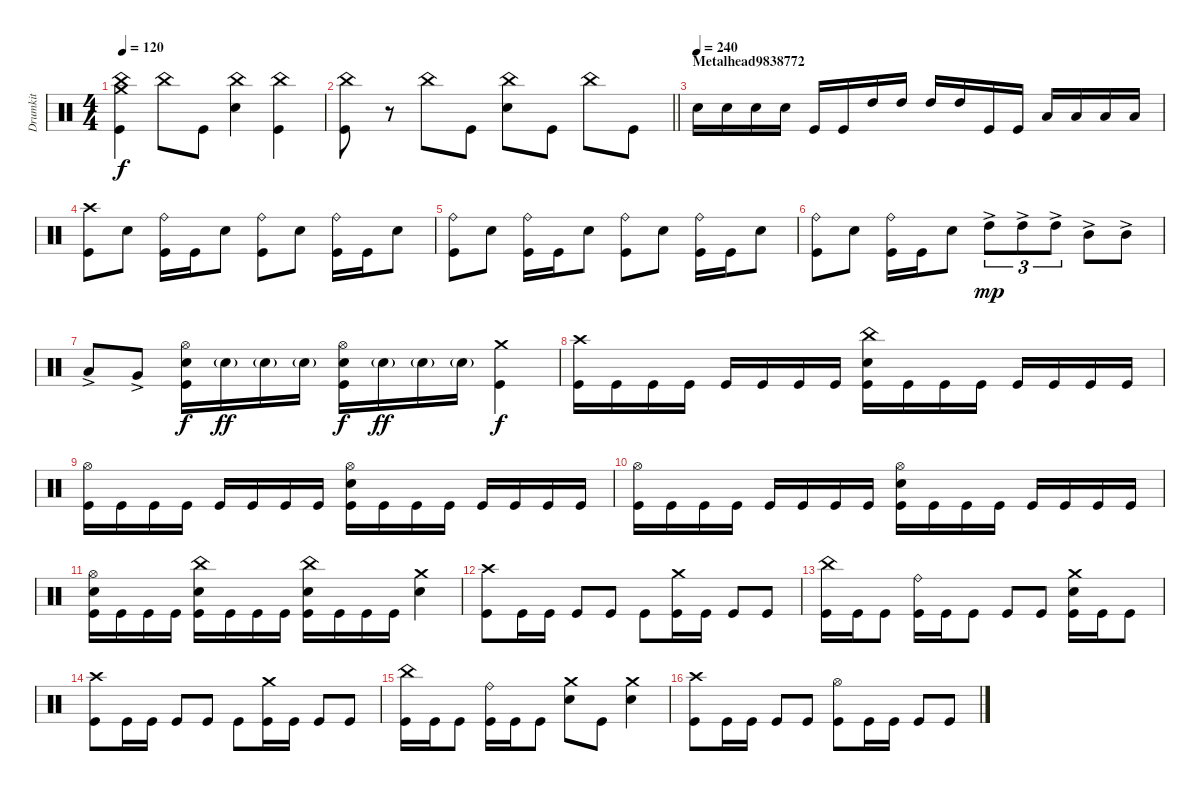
\track ("Drumkit" "Drumkit") {instrument percussion}
\staff {score}
\articulation defaults
\ts (4 4)
\tempo 120
\clef neutral
\ks c
("Crash medium (hit)" "China (hit)" "Kick (hit)").4{dy f} "China (hit)".8 "Kick (hit)".8 ("China (hit)" "Snare (hit) 2").4 ("China (hit)" "Kick (hit)").4 |
\barLineRight lightlight
("China (hit)" "Kick (hit)").8 r.8 "China (hit)".8 "Kick (hit)".8 ("China (hit)" "Snare (hit) 2").8 "Kick (hit)".8 "China (hit)".8 "Kick (hit)".8 |
\section ("" "Metalhead9838772")
\tempo (240)
"Snare (hit) 2".16 "Snare (hit) 2".16 "Snare (hit) 2".16 "Snare (hit) 2".16 "Kick (hit)".16 "Kick (hit)".16 "High Tom (hit)".16 "High Tom (hit)".16 "High Tom (hit)".16 "High Tom (hit)".16 "Kick (hit)".16 "Kick (hit)".16 "Low Tom (hit)".16 "Low Tom (hit)".16 "Low Tom (hit)".16 "Low Tom (hit)".16 |
("Crash high (hit)" "Kick (hit)").8 "Snare (hit) 2".8 ("Ride (bell)" "Kick (hit)").16 "Kick (hit)".16 "Snare (hit) 2".8 ("Ride (bell)" "Kick (hit)").8 "Snare (hit) 2".8 ("Ride (bell)" "Kick (hit)").16 "Kick (hit)".16 "Snare (hit) 2".8 |
("Ride (bell)" "Kick (hit)").8 "Snare (hit) 2".8 ("Ride (bell)" "Kick (hit)").16 "Kick (hit)".16 "Snare (hit) 2".8 ("Ride (bell)" "Kick (hit)").8 "Snare (hit) 2".8 ("Ride (bell)" "Kick (hit)").16 "Kick (hit)".16 "Snare (hit) 2".8 |
("Ride (bell)" "Kick (hit)").8 "Snare (hit) 2".8 ("Ride (bell)" "Kick (hit)").16 "Kick (hit)".16 "Snare (hit) 2".8 "High Tom (hit)"{ac}.8{tu (3 2) dy mp} "High Tom (hit)"{ac}.8{tu (3 2)} "High Tom (hit)"{ac}.8{tu (3 2)} "Mid Tom (hit)"{ac}.8 "Mid Tom (hit)"{ac}.8 |
"Low Tom (hit)"{ac}.8 "Very Low Tom (hit)"{ac}.8 ("Hi-Hat (open)" "Snare (hit) 2" "Kick (hit)").16{dy f} "Snare (hit) 2"{g}.16{dy ff} "Snare (hit) 2"{g}.16 "Snare (hit) 2"{g}.16 ("Hi-Hat (open)" "Snare (hit) 2" "Kick (hit)").16{dy f} "Snare (hit) 2"{g}.16{dy ff} "Snare (hit) 2"{g}.16 "Snare (hit) 2"{g}.16 ("Crash medium (hit)" "Kick (hit)").4{dy f} |
("Crash high (hit)" "Kick (hit)").16 "Kick (hit)".16 "Kick (hit)".16 "Kick (hit)".16 "Kick (hit)".16 "Kick (hit)".16 "Kick (hit)".16 "Kick (hit)".16 ("China (hit)" "Snare (hit) 2" "Kick (hit)").16 "Kick (hit)".16 "Kick (hit)".16 "Kick (hit)".16 "Kick (hit)".16 "Kick (hit)".16 "Kick (hit)".16 "Kick (hit)".16 |
("Hi-Hat (open)" "Kick (hit)").16 "Kick (hit)".16 "Kick (hit)".16 "Kick (hit)".16 "Kick (hit)".16 "Kick (hit)".16 "Kick (hit)".16 "Kick (hit)".16 ("Hi-Hat (open)" "Snare (hit) 2" "Kick (hit)").16 "Kick (hit)".16 "Kick (hit)".16 "Kick (hit)".16 "Kick (hit)".16 "Kick (hit)".16 "Kick (hit)".16 "Kick (hit)".16 |
("Hi-Hat (open)" "Kick (hit)").16 "Kick (hit)".16 "Kick (hit)".16 "Kick (hit)".16 "Kick (hit)".16 "Kick (hit)".16 "Kick (hit)".16 "Kick (hit)".16 ("Hi-Hat (open)" "Snare (hit) 2" "Kick (hit)").16 "Kick (hit)".16 "Kick (hit)".16 "Kick (hit)".16 "Kick (hit)".16 "Kick (hit)".16 "Kick (hit)".16 "Kick (hit)".16 |
("Hi-Hat (open)" "Snare (hit) 2" "Kick (hit)").16 "Kick (hit)".16 "Kick (hit)".16 "Kick (hit)".16 ("China (hit)" "Snare (hit) 2" "Kick (hit)").16 "Kick (hit)".16 "Kick (hit)".16 "Kick (hit)".16 ("China (hit)" "Snare (hit) 2" "Kick (hit)").16 "Kick (hit)".16 "Kick (hit)".16 "Kick (hit)".16 ("Crash medium (hit)" "Snare (hit) 2").4 |
("Crash high (hit)" "Kick (hit)").8 "Kick (hit)".16 "Kick (hit)".16 "Kick (hit)".8 "Kick (hit)".8 "Kick (hit)".8 ("Crash medium (hit)" "Kick (hit)").16 "Kick (hit)".16 "Kick (hit)".8 "Kick (hit)".8 |
("China (hit)" "Kick (hit)").16 "Kick (hit)".16 "Kick (hit)".8 ("Ride (bell)" "Kick (hit)").16 "Kick (hit)".16 "Kick (hit)".8 "Kick (hit)".8 "Kick (hit)".8 ("Crash medium (hit)" "Snare (hit) 2" "Kick (hit)").16 "Kick (hit)".16 "Kick (hit)".8 |
("Crash high (hit)" "Kick (hit)").8 "Kick (hit)".16 "Kick (hit)".16 "Kick (hit)".8 "Kick (hit)".8 "Kick (hit)".8 ("Crash medium (hit)" "Kick (hit)").16 "Kick (hit)".16 "Kick (hit)".8 "Kick (hit)".8 |
("China (hit)" "Kick (hit)").16 "Kick (hit)".16 "Kick (hit)".8 ("Ride (bell)" "Kick (hit)").16 "Kick (hit)".16 "Kick (hit)".8 ("Crash medium (hit)" "Snare (hit) 2").8 "Kick (hit)".8 ("Crash medium (hit)" "Snare (hit) 2").4 |
("Crash high (hit)" "Kick (hit)").8 "Kick (hit)".16 "Kick (hit)".16 "Kick (hit)".8 "Kick (hit)".8 ("Hi-Hat (open)" "Kick (hit)").8 "Kick (hit)".16 "Kick (hit)".16 "Kick (hit)".8 "Kick (hit)".8
